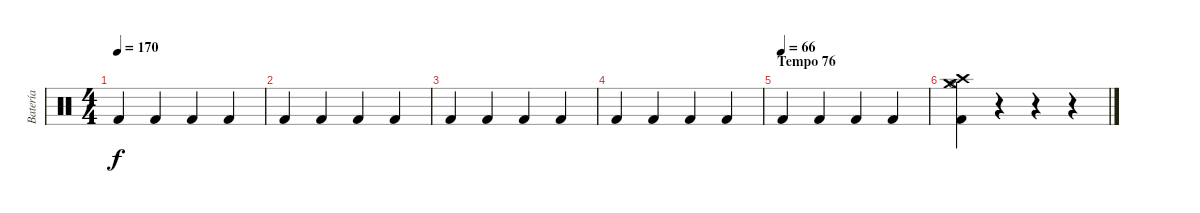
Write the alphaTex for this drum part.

\track ("Batería" "Batería") {instrument percussion}
\staff {score}
\articulation defaults
\ts (4 4)
\tempo 170
\clef neutral
\ks c "Kick (hit) 2".4{dy f} "Kick (hit) 2".4 "Kick (hit) 2".4 "Kick (hit) 2".4
|
"Kick (hit) 2".4 "Kick (hit) 2".4 "Kick (hit) 2".4 "Kick (hit) 2".4 |
"Kick (hit) 2".4 "Kick (hit) 2".4 "Kick (hit) 2".4 "Kick (hit) 2".4 |
"Kick (hit) 2".4 "Kick (hit) 2".4 "Kick (hit) 2".4 "Kick (hit) 2".4 |
\section ("" "Tempo 76")
\tempo (66)
"Kick (hit) 2".4 "Kick (hit) 2".4 "Kick (hit) 2".4 "Kick (hit) 2".4 |
("Crash medium (hit)" "Hi-Hat (open)" "Kick (hit) 2" "Crash high (hit)").4 r.4 r.4 r.4
